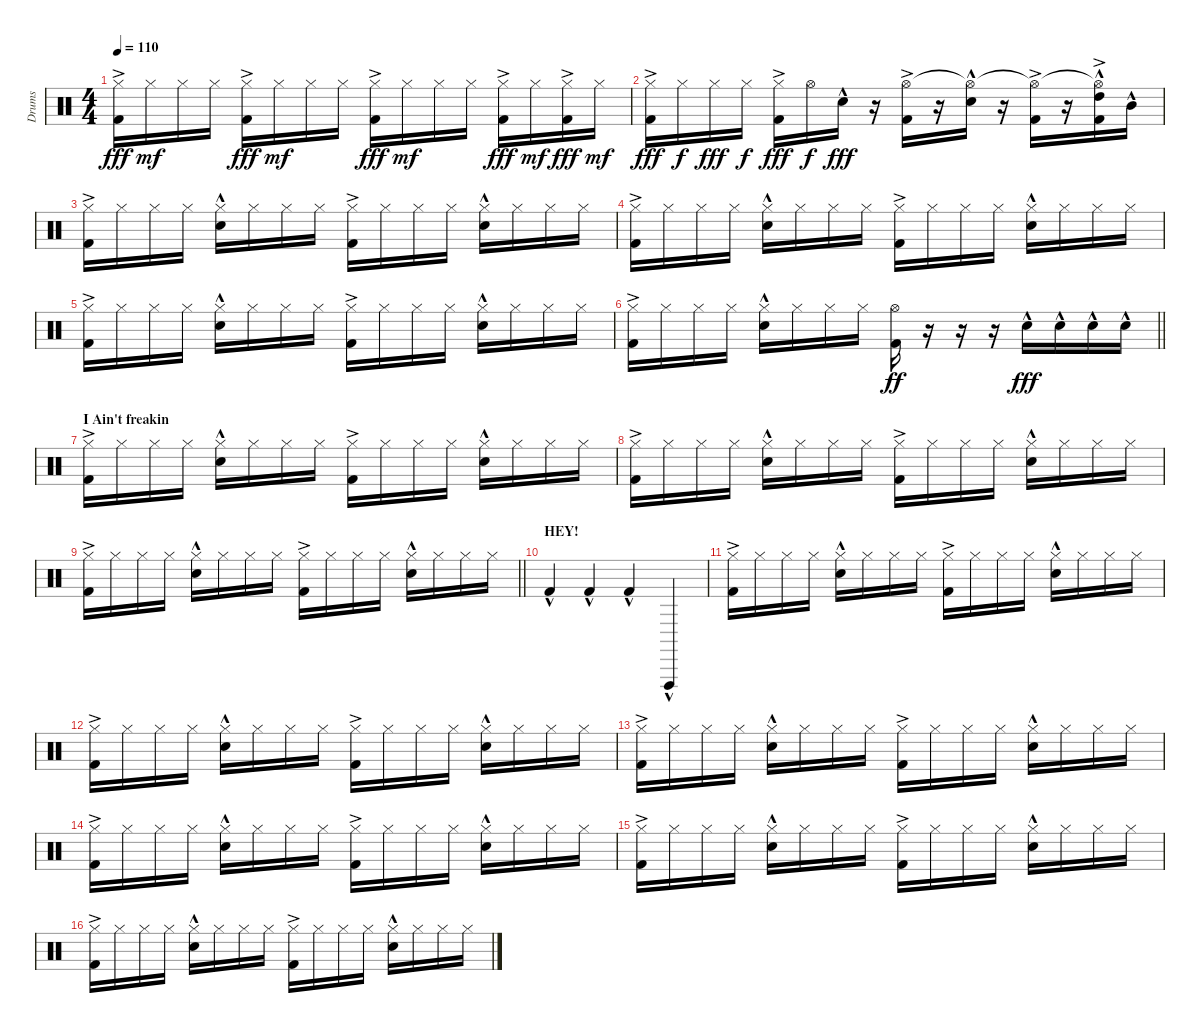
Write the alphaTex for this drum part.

\track ("Drums" "Drums") {instrument percussion}
\staff {score}
\articulation defaults
\ts (4 4)
\tempo 110
\clef neutral
\ks c
("Hi-Hat (closed)" "Kick (hit) 2"{ac}).16{dy fff} "Hi-Hat (closed)".16{dy mf} "Hi-Hat (closed)".16 "Hi-Hat (closed)".16 ("Hi-Hat (closed)" "Kick (hit) 2"{ac}).16{dy fff} "Hi-Hat (closed)".16{dy mf} "Hi-Hat (closed)".16 "Hi-Hat (closed)".16 ("Hi-Hat (closed)" "Kick (hit) 2"{ac}).16{dy fff} "Hi-Hat (closed)".16{dy mf} "Hi-Hat (closed)".16 "Hi-Hat (closed)".16 ("Hi-Hat (closed)" "Kick (hit) 2"{ac}).16{dy fff} "Hi-Hat (closed)".16{dy mf} ("Hi-Hat (closed)" "Kick (hit) 2"{ac}).16{dy fff} "Hi-Hat (closed)".16{dy mf} |
("Hi-Hat (closed)" "Kick (hit) 2"{ac}).16{dy fff} "Hi-Hat (closed)".16{dy f} "Hi-Hat (closed)".16{dy fff} "Hi-Hat (closed)".16{dy f} ("Hi-Hat (closed)" "Kick (hit) 2"{ac}).16{dy fff} "Hi-Hat (open)".16{dy f} "Electric Snare (hit)"{hac}.16{dy fff} r.16 ("Hi-Hat (open)" "Kick (hit) 2"{ac}).16 r.16 ("Hi-Hat (open)"{t} "Electric Snare (hit)"{hac}).16 r.16 ("Hi-Hat (open)"{t} "Kick (hit) 2"{ac}).16 r.16 ("Hi-Hat (open)"{t} "High Tom (hit)"{hac} "Kick (hit) 2"{ac}).16 "Mid Tom (hit)"{hac}.16 |
("Hi-Hat (closed)" "Kick (hit) 2"{ac}).16 "Hi-Hat (closed)".16 "Hi-Hat (closed)".16 "Hi-Hat (closed)".16 ("Hi-Hat (closed)" "Electric Snare (hit)"{hac}).16 "Hi-Hat (closed)".16 "Hi-Hat (closed)".16 "Hi-Hat (closed)".16 ("Hi-Hat (closed)" "Kick (hit) 2"{ac}).16 "Hi-Hat (closed)".16 "Hi-Hat (closed)".16 "Hi-Hat (closed)".16 ("Hi-Hat (closed)" "Electric Snare (hit)"{hac}).16 "Hi-Hat (closed)".16 "Hi-Hat (closed)".16 "Hi-Hat (closed)".16 |
("Hi-Hat (closed)" "Kick (hit) 2"{ac}).16 "Hi-Hat (closed)".16 "Hi-Hat (closed)".16 "Hi-Hat (closed)".16 ("Hi-Hat (closed)" "Electric Snare (hit)"{hac}).16 "Hi-Hat (closed)".16 "Hi-Hat (closed)".16 "Hi-Hat (closed)".16 ("Hi-Hat (closed)" "Kick (hit) 2"{ac}).16 "Hi-Hat (closed)".16 "Hi-Hat (closed)".16 "Hi-Hat (closed)".16 ("Hi-Hat (closed)" "Electric Snare (hit)"{hac}).16 "Hi-Hat (closed)".16 "Hi-Hat (closed)".16 "Hi-Hat (closed)".16 |
("Hi-Hat (closed)" "Kick (hit) 2"{ac}).16 "Hi-Hat (closed)".16 "Hi-Hat (closed)".16 "Hi-Hat (closed)".16 ("Hi-Hat (closed)" "Electric Snare (hit)"{hac}).16 "Hi-Hat (closed)".16 "Hi-Hat (closed)".16 "Hi-Hat (closed)".16 ("Hi-Hat (closed)" "Kick (hit) 2"{ac}).16 "Hi-Hat (closed)".16 "Hi-Hat (closed)".16 "Hi-Hat (closed)".16 ("Hi-Hat (closed)" "Electric Snare (hit)"{hac}).16 "Hi-Hat (closed)".16 "Hi-Hat (closed)".16 "Hi-Hat (closed)".16 |
\barLineRight lightlight
("Hi-Hat (closed)" "Kick (hit) 2"{ac}).16 "Hi-Hat (closed)".16 "Hi-Hat (closed)".16 "Hi-Hat (closed)".16 ("Hi-Hat (closed)" "Electric Snare (hit)"{hac}).16 "Hi-Hat (closed)".16 "Hi-Hat (closed)".16 "Hi-Hat (closed)".16 ("Hi-Hat (open)" "Kick (hit) 2").16{dy ff} r.16 r.16 r.16 "Electric Snare (hit)"{hac}.16{dy fff} "Electric Snare (hit)"{hac}.16 "Electric Snare (hit)"{hac}.16 "Electric Snare (hit)"{hac}.16 |
\section ("" "I Ain't freakin")
("Hi-Hat (closed)" "Kick (hit) 2"{ac}).16 "Hi-Hat (closed)".16 "Hi-Hat (closed)".16 "Hi-Hat (closed)".16 ("Hi-Hat (closed)" "Electric Snare (hit)"{hac}).16 "Hi-Hat (closed)".16 "Hi-Hat (closed)".16 "Hi-Hat (closed)".16 ("Hi-Hat (closed)" "Kick (hit) 2"{ac}).16 "Hi-Hat (closed)".16 "Hi-Hat (closed)".16 "Hi-Hat (closed)".16 ("Hi-Hat (closed)" "Electric Snare (hit)"{hac}).16 "Hi-Hat (closed)".16 "Hi-Hat (closed)".16 "Hi-Hat (closed)".16 |
("Hi-Hat (closed)" "Kick (hit) 2"{ac}).16 "Hi-Hat (closed)".16 "Hi-Hat (closed)".16 "Hi-Hat (closed)".16 ("Hi-Hat (closed)" "Electric Snare (hit)"{hac}).16 "Hi-Hat (closed)".16 "Hi-Hat (closed)".16 "Hi-Hat (closed)".16 ("Hi-Hat (closed)" "Kick (hit) 2"{ac}).16 "Hi-Hat (closed)".16 "Hi-Hat (closed)".16 "Hi-Hat (closed)".16 ("Hi-Hat (closed)" "Electric Snare (hit)"{hac}).16 "Hi-Hat (closed)".16 "Hi-Hat (closed)".16 "Hi-Hat (closed)".16 |
\barLineRight lightlight
("Hi-Hat (closed)" "Kick (hit) 2"{ac}).16 "Hi-Hat (closed)".16 "Hi-Hat (closed)".16 "Hi-Hat (closed)".16 ("Hi-Hat (closed)" "Electric Snare (hit)"{hac}).16 "Hi-Hat (closed)".16 "Hi-Hat (closed)".16 "Hi-Hat (closed)".16 ("Hi-Hat (closed)" "Kick (hit) 2"{ac}).16 "Hi-Hat (closed)".16 "Hi-Hat (closed)".16 "Hi-Hat (closed)".16 ("Hi-Hat (closed)" "Electric Snare (hit)"{hac}).16 "Hi-Hat (closed)".16 "Hi-Hat (closed)".16 "Hi-Hat (closed)".16 |
\section ("" "HEY!")
"Kick (hit) 2"{hac}.4 "Kick (hit) 2"{hac}.4 "Kick (hit) 2"{hac}.4 "Vibraslap (hit)"{hac}.4 |
("Hi-Hat (closed)" "Kick (hit) 2"{ac}).16 "Hi-Hat (closed)".16 "Hi-Hat (closed)".16 "Hi-Hat (closed)".16 ("Hi-Hat (closed)" "Electric Snare (hit)"{hac}).16 "Hi-Hat (closed)".16 "Hi-Hat (closed)".16 "Hi-Hat (closed)".16 ("Hi-Hat (closed)" "Kick (hit) 2"{ac}).16 "Hi-Hat (closed)".16 "Hi-Hat (closed)".16 "Hi-Hat (closed)".16 ("Hi-Hat (closed)" "Electric Snare (hit)"{hac}).16 "Hi-Hat (closed)".16 "Hi-Hat (closed)".16 "Hi-Hat (closed)".16 |
("Hi-Hat (closed)" "Kick (hit) 2"{ac}).16 "Hi-Hat (closed)".16 "Hi-Hat (closed)".16 "Hi-Hat (closed)".16 ("Hi-Hat (closed)" "Electric Snare (hit)"{hac}).16 "Hi-Hat (closed)".16 "Hi-Hat (closed)".16 "Hi-Hat (closed)".16 ("Hi-Hat (closed)" "Kick (hit) 2"{ac}).16 "Hi-Hat (closed)".16 "Hi-Hat (closed)".16 "Hi-Hat (closed)".16 ("Hi-Hat (closed)" "Electric Snare (hit)"{hac}).16 "Hi-Hat (closed)".16 "Hi-Hat (closed)".16 "Hi-Hat (closed)".16 |
("Hi-Hat (closed)" "Kick (hit) 2"{ac}).16 "Hi-Hat (closed)".16 "Hi-Hat (closed)".16 "Hi-Hat (closed)".16 ("Hi-Hat (closed)" "Electric Snare (hit)"{hac}).16 "Hi-Hat (closed)".16 "Hi-Hat (closed)".16 "Hi-Hat (closed)".16 ("Hi-Hat (closed)" "Kick (hit) 2"{ac}).16 "Hi-Hat (closed)".16 "Hi-Hat (closed)".16 "Hi-Hat (closed)".16 ("Hi-Hat (closed)" "Electric Snare (hit)"{hac}).16 "Hi-Hat (closed)".16 "Hi-Hat (closed)".16 "Hi-Hat (closed)".16 |
("Hi-Hat (closed)" "Kick (hit) 2"{ac}).16 "Hi-Hat (closed)".16 "Hi-Hat (closed)".16 "Hi-Hat (closed)".16 ("Hi-Hat (closed)" "Electric Snare (hit)"{hac}).16 "Hi-Hat (closed)".16 "Hi-Hat (closed)".16 "Hi-Hat (closed)".16 ("Hi-Hat (closed)" "Kick (hit) 2"{ac}).16 "Hi-Hat (closed)".16 "Hi-Hat (closed)".16 "Hi-Hat (closed)".16 ("Hi-Hat (closed)" "Electric Snare (hit)"{hac}).16 "Hi-Hat (closed)".16 "Hi-Hat (closed)".16 "Hi-Hat (closed)".16 |
("Hi-Hat (closed)" "Kick (hit) 2"{ac}).16 "Hi-Hat (closed)".16 "Hi-Hat (closed)".16 "Hi-Hat (closed)".16 ("Hi-Hat (closed)" "Electric Snare (hit)"{hac}).16 "Hi-Hat (closed)".16 "Hi-Hat (closed)".16 "Hi-Hat (closed)".16 ("Hi-Hat (closed)" "Kick (hit) 2"{ac}).16 "Hi-Hat (closed)".16 "Hi-Hat (closed)".16 "Hi-Hat (closed)".16 ("Hi-Hat (closed)" "Electric Snare (hit)"{hac}).16 "Hi-Hat (closed)".16 "Hi-Hat (closed)".16 "Hi-Hat (closed)".16 |
("Hi-Hat (closed)" "Kick (hit) 2"{ac}).16 "Hi-Hat (closed)".16 "Hi-Hat (closed)".16 "Hi-Hat (closed)".16 ("Hi-Hat (closed)" "Electric Snare (hit)"{hac}).16 "Hi-Hat (closed)".16 "Hi-Hat (closed)".16 "Hi-Hat (closed)".16 ("Hi-Hat (closed)" "Kick (hit) 2"{ac}).16 "Hi-Hat (closed)".16 "Hi-Hat (closed)".16 "Hi-Hat (closed)".16 ("Hi-Hat (closed)" "Electric Snare (hit)"{hac}).16 "Hi-Hat (closed)".16 "Hi-Hat (closed)".16 "Hi-Hat (closed)".16
